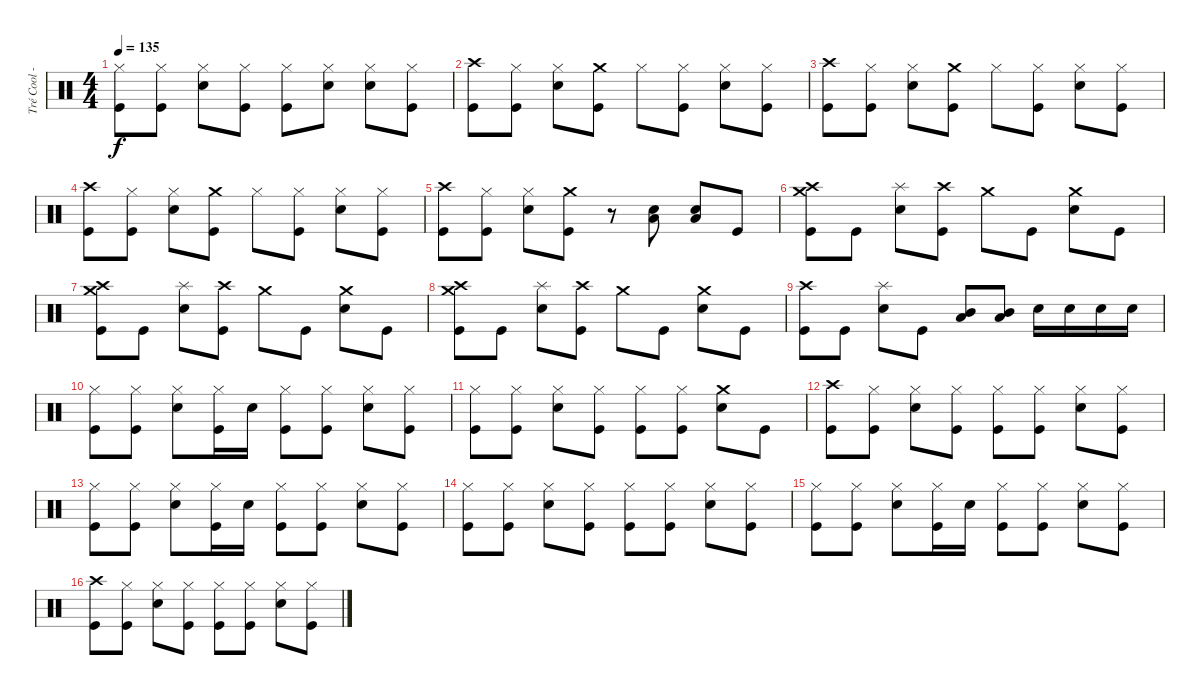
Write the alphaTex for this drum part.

\track ("Tré Cool - Drums" "Tré Cool -") {instrument percussion}
\staff {score}
\articulation defaults
\ts (4 4)
\tempo 135
\clef neutral
\ks c
("Hi-Hat (closed)" "Kick (hit)").8{dy f} ("Hi-Hat (closed)" "Kick (hit)").8 ("Hi-Hat (closed)" "Electric Snare (hit)").8 ("Hi-Hat (closed)" "Kick (hit)").8 ("Hi-Hat (closed)" "Kick (hit)").8 ("Hi-Hat (closed)" "Electric Snare (hit)").8 ("Hi-Hat (closed)" "Electric Snare (hit)").8 ("Hi-Hat (closed)" "Kick (hit)").8 |
("Crash high (hit)" "Kick (hit)").8 ("Hi-Hat (closed)" "Kick (hit)").8 ("Hi-Hat (closed)" "Electric Snare (hit)").8 ("Crash medium (hit)" "Kick (hit)").8 "Hi-Hat (closed)".8 ("Hi-Hat (closed)" "Kick (hit)").8 ("Hi-Hat (closed)" "Electric Snare (hit)").8 ("Hi-Hat (closed)" "Kick (hit)").8 |
("Crash high (hit)" "Kick (hit)").8 ("Hi-Hat (closed)" "Kick (hit)").8 ("Hi-Hat (closed)" "Electric Snare (hit)").8 ("Crash medium (hit)" "Kick (hit)").8 "Hi-Hat (closed)".8 ("Hi-Hat (closed)" "Kick (hit)").8 ("Hi-Hat (closed)" "Electric Snare (hit)").8 ("Hi-Hat (closed)" "Kick (hit)").8 |
("Crash high (hit)" "Kick (hit)").8 ("Hi-Hat (closed)" "Kick (hit)").8 ("Hi-Hat (closed)" "Electric Snare (hit)").8 ("Crash medium (hit)" "Kick (hit)").8 "Hi-Hat (closed)".8 ("Hi-Hat (closed)" "Kick (hit)").8 ("Hi-Hat (closed)" "Electric Snare (hit)").8 ("Hi-Hat (closed)" "Kick (hit)").8 |
("Crash high (hit)" "Kick (hit)").8 ("Hi-Hat (closed)" "Kick (hit)").8 ("Hi-Hat (closed)" "Electric Snare (hit)").8 ("Crash medium (hit)" "Kick (hit)").8 r.8 ("Low Floor Tom (hit)" "Electric Snare (hit)").8 ("Low Floor Tom (hit)" "Electric Snare (hit)").8 "Kick (hit)".8 |
("Crash medium (hit)" "Crash high (hit)" "Kick (hit)").8 "Kick (hit)".8 ("Splash (hit)" "Electric Snare (hit)").8 ("Crash high (hit)" "Kick (hit)").8 "Crash medium (hit)".8 "Kick (hit)".8 ("Crash medium (hit)" "Electric Snare (hit)").8 "Kick (hit)".8 |
("Crash medium (hit)" "Crash high (hit)" "Kick (hit)").8 "Kick (hit)".8 ("Splash (hit)" "Electric Snare (hit)").8 ("Crash high (hit)" "Kick (hit)").8 "Crash medium (hit)".8 "Kick (hit)".8 ("Crash medium (hit)" "Electric Snare (hit)").8 "Kick (hit)".8 |
("Crash medium (hit)" "Crash high (hit)" "Kick (hit)").8 "Kick (hit)".8 ("Splash (hit)" "Electric Snare (hit)").8 ("Crash high (hit)" "Kick (hit)").8 "Crash medium (hit)".8 "Kick (hit)".8 ("Crash medium (hit)" "Electric Snare (hit)").8 "Kick (hit)".8 |
("Crash high (hit)" "Kick (hit)").8 "Kick (hit)".8 ("Splash (hit)" "Electric Snare (hit)").8 "Kick (hit)".8 ("Low Tom (hit)" "Mid Tom (hit)").8 ("Low Tom (hit)" "Mid Tom (hit)").8 "Electric Snare (hit)".16 "Electric Snare (hit)".16 "Electric Snare (hit)".16 "Electric Snare (hit)".16 |
("Hi-Hat (closed)" "Kick (hit)").8 ("Hi-Hat (closed)" "Kick (hit)").8 ("Hi-Hat (closed)" "Electric Snare (hit)").8 ("Hi-Hat (closed)" "Kick (hit)").16 "Electric Snare (hit)".16 ("Hi-Hat (closed)" "Kick (hit)").8 ("Hi-Hat (closed)" "Kick (hit)").8 ("Hi-Hat (closed)" "Electric Snare (hit)").8 ("Hi-Hat (closed)" "Kick (hit)").8 |
("Hi-Hat (closed)" "Kick (hit)").8 ("Hi-Hat (closed)" "Kick (hit)").8 ("Hi-Hat (closed)" "Electric Snare (hit)").8 ("Hi-Hat (closed)" "Kick (hit)").8 ("Hi-Hat (closed)" "Kick (hit)").8 ("Hi-Hat (closed)" "Kick (hit)").8 ("Crash medium (hit)" "Electric Snare (hit)").8 "Kick (hit)".8 |
("Crash high (hit)" "Kick (hit)").8 ("Hi-Hat (closed)" "Kick (hit)").8 ("Hi-Hat (closed)" "Electric Snare (hit)").8 ("Hi-Hat (closed)" "Kick (hit)").8 ("Hi-Hat (closed)" "Kick (hit)").8 ("Hi-Hat (closed)" "Kick (hit)").8 ("Hi-Hat (closed)" "Electric Snare (hit)").8 ("Hi-Hat (closed)" "Kick (hit)").8 |
("Hi-Hat (closed)" "Kick (hit)").8 ("Hi-Hat (closed)" "Kick (hit)").8 ("Hi-Hat (closed)" "Electric Snare (hit)").8 ("Hi-Hat (closed)" "Kick (hit)").16 "Electric Snare (hit)".16 ("Hi-Hat (closed)" "Kick (hit)").8 ("Hi-Hat (closed)" "Kick (hit)").8 ("Hi-Hat (closed)" "Electric Snare (hit)").8 ("Hi-Hat (closed)" "Kick (hit)").8 |
("Hi-Hat (closed)" "Kick (hit)").8 ("Hi-Hat (closed)" "Kick (hit)").8 ("Hi-Hat (closed)" "Electric Snare (hit)").8 ("Hi-Hat (closed)" "Kick (hit)").8 ("Hi-Hat (closed)" "Kick (hit)").8 ("Hi-Hat (closed)" "Kick (hit)").8 ("Hi-Hat (closed)" "Electric Snare (hit)").8 ("Hi-Hat (closed)" "Kick (hit)").8 |
("Hi-Hat (closed)" "Kick (hit)").8 ("Hi-Hat (closed)" "Kick (hit)").8 ("Hi-Hat (closed)" "Electric Snare (hit)").8 ("Hi-Hat (closed)" "Kick (hit)").16 "Electric Snare (hit)".16 ("Hi-Hat (closed)" "Kick (hit)").8 ("Hi-Hat (closed)" "Kick (hit)").8 ("Hi-Hat (closed)" "Electric Snare (hit)").8 ("Hi-Hat (closed)" "Kick (hit)").8 |
("Crash high (hit)" "Kick (hit)").8 ("Hi-Hat (closed)" "Kick (hit)").8 ("Hi-Hat (closed)" "Electric Snare (hit)").8 ("Hi-Hat (closed)" "Kick (hit)").8 ("Hi-Hat (closed)" "Kick (hit)").8 ("Hi-Hat (closed)" "Kick (hit)").8 ("Hi-Hat (closed)" "Electric Snare (hit)").8 ("Hi-Hat (closed)" "Kick (hit)").8
